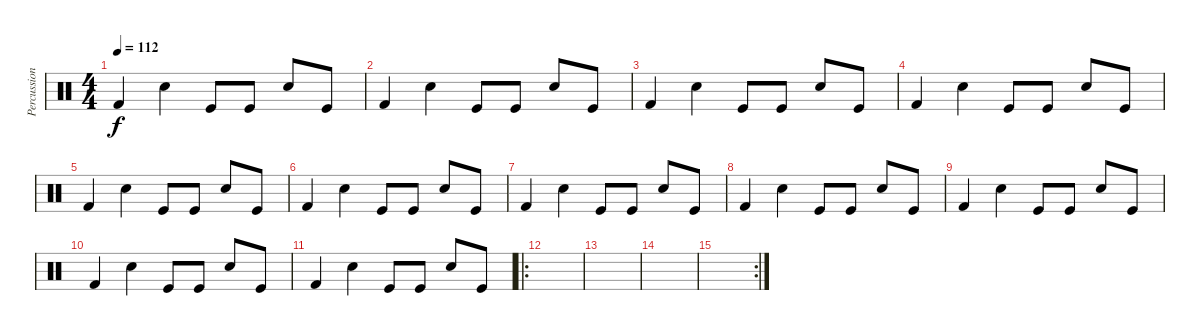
\track ("Percussions" "Percussion") {instrument percussion}
\staff {score}
\articulation defaults
\ts (4 4)
\tempo 112
\clef neutral
\ks c "Kick (hit) 2".4{dy f} "Snare (hit) 2".4 "Kick (hit)".8 "Kick (hit)".8 "Snare (hit) 2".8 "Kick (hit)".8
|
"Kick (hit) 2".4 "Snare (hit) 2".4 "Kick (hit)".8 "Kick (hit)".8 "Snare (hit) 2".8 "Kick (hit)".8 |
"Kick (hit) 2".4 "Snare (hit) 2".4 "Kick (hit)".8 "Kick (hit)".8 "Snare (hit) 2".8 "Kick (hit)".8 |
"Kick (hit) 2".4 "Snare (hit) 2".4 "Kick (hit)".8 "Kick (hit)".8 "Snare (hit) 2".8 "Kick (hit)".8 |
"Kick (hit) 2".4 "Snare (hit) 2".4 "Kick (hit)".8 "Kick (hit)".8 "Snare (hit) 2".8 "Kick (hit)".8 |
"Kick (hit) 2".4 "Snare (hit) 2".4 "Kick (hit)".8 "Kick (hit)".8 "Snare (hit) 2".8 "Kick (hit)".8 |
"Kick (hit) 2".4 "Snare (hit) 2".4 "Kick (hit)".8 "Kick (hit)".8 "Snare (hit) 2".8 "Kick (hit)".8 |
"Kick (hit) 2".4 "Snare (hit) 2".4 "Kick (hit)".8 "Kick (hit)".8 "Snare (hit) 2".8 "Kick (hit)".8 |
"Kick (hit) 2".4 "Snare (hit) 2".4 "Kick (hit)".8 "Kick (hit)".8 "Snare (hit) 2".8 "Kick (hit)".8 |
"Kick (hit) 2".4 "Snare (hit) 2".4 "Kick (hit)".8 "Kick (hit)".8 "Snare (hit) 2".8 "Kick (hit)".8 |
"Kick (hit) 2".4 "Snare (hit) 2".4 "Kick (hit)".8 "Kick (hit)".8 "Snare (hit) 2".8 "Kick (hit)".8 |
\ro
|
|
|
\rc 2
